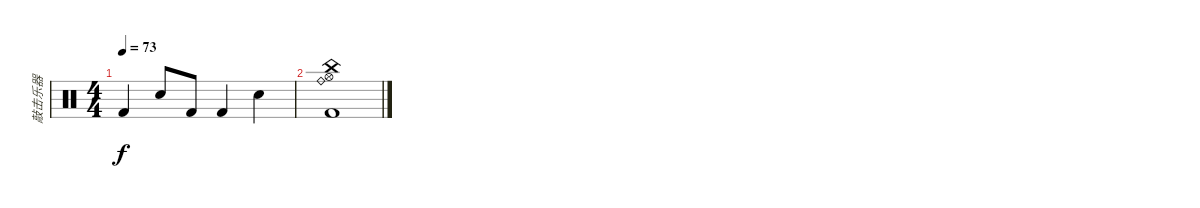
\track ("敲击乐器" "敲击乐器") {instrument percussion}
\staff {score}
\articulation defaults
\ts (4 4)
\tempo 73
\clef neutral
\ks c "Kick (hit) 2".4{dy f} "Hand Clap (hit)".8 "Kick (hit) 2".8 "Kick (hit) 2".4 "Hand Clap (hit)".4
|
("Kick (hit) 2" "Hi-Hat (open)" "China (hit)" "Ride (bell)").1
